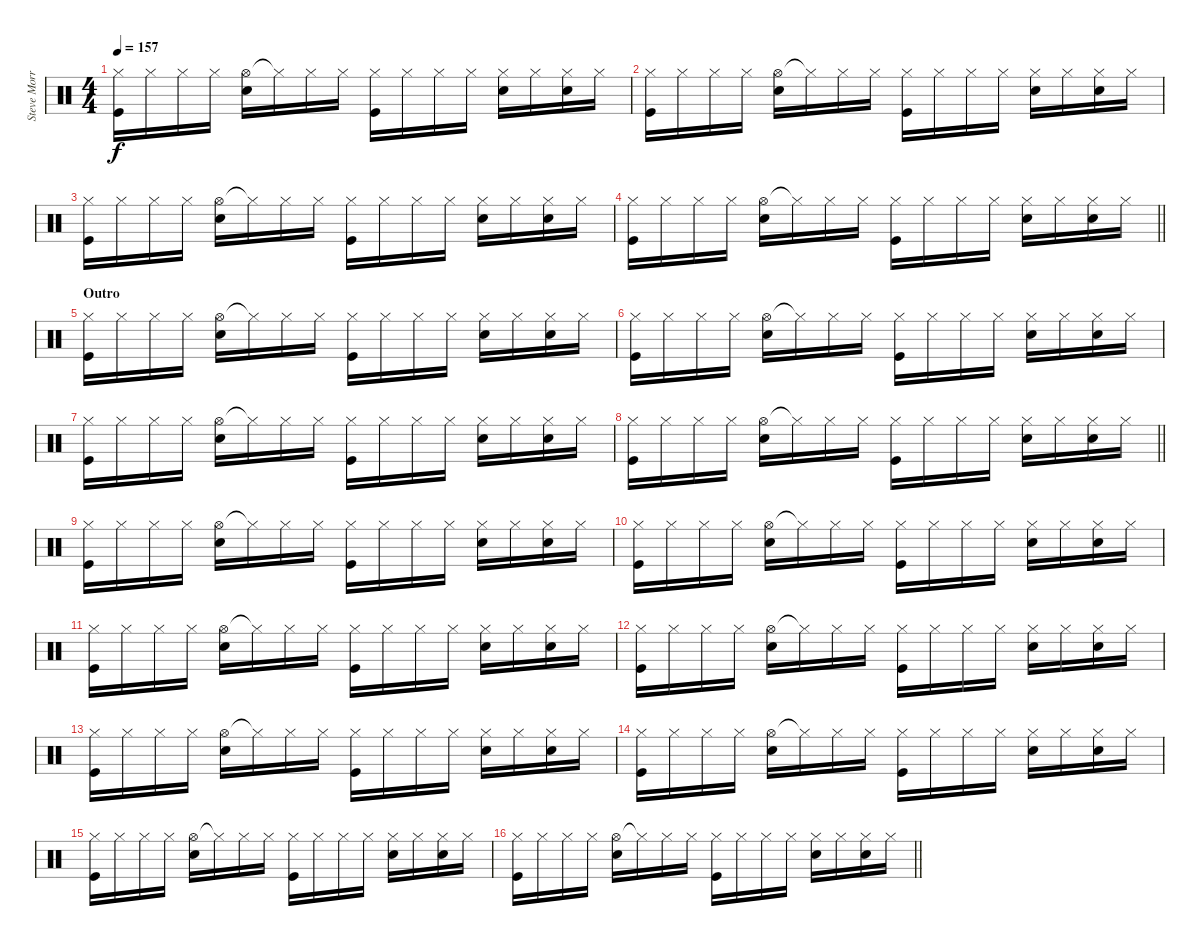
\track ("Steve Morris" "Steve Morr") {instrument percussion}
\staff {score}
\articulation defaults
\ts (4 4)
\tempo 157
\clef neutral
\ks c
("Hi-Hat (closed)" "Kick (hit)").16{dy f} "Hi-Hat (closed)".16 "Hi-Hat (closed)".16 "Hi-Hat (closed)".16 ("Hi-Hat (open)" "Electric Snare (hit)").16 "Hi-Hat (closed)"{t}.16 "Hi-Hat (closed)".16 "Hi-Hat (closed)".16 ("Hi-Hat (closed)" "Kick (hit)").16 "Hi-Hat (closed)".16 "Hi-Hat (closed)".16 "Hi-Hat (closed)".16 ("Hi-Hat (closed)" "Electric Snare (hit)").16 "Hi-Hat (closed)".16 ("Hi-Hat (closed)" "Electric Snare (hit)").16 "Hi-Hat (closed)".16 |
("Hi-Hat (closed)" "Kick (hit)").16 "Hi-Hat (closed)".16 "Hi-Hat (closed)".16 "Hi-Hat (closed)".16 ("Hi-Hat (open)" "Electric Snare (hit)").16 "Hi-Hat (closed)"{t}.16 "Hi-Hat (closed)".16 "Hi-Hat (closed)".16 ("Hi-Hat (closed)" "Kick (hit)").16 "Hi-Hat (closed)".16 "Hi-Hat (closed)".16 "Hi-Hat (closed)".16 ("Hi-Hat (closed)" "Electric Snare (hit)").16 "Hi-Hat (closed)".16 ("Hi-Hat (closed)" "Electric Snare (hit)").16 "Hi-Hat (closed)".16 |
("Hi-Hat (closed)" "Kick (hit)").16 "Hi-Hat (closed)".16 "Hi-Hat (closed)".16 "Hi-Hat (closed)".16 ("Hi-Hat (open)" "Electric Snare (hit)").16 "Hi-Hat (closed)"{t}.16 "Hi-Hat (closed)".16 "Hi-Hat (closed)".16 ("Hi-Hat (closed)" "Kick (hit)").16 "Hi-Hat (closed)".16 "Hi-Hat (closed)".16 "Hi-Hat (closed)".16 ("Hi-Hat (closed)" "Electric Snare (hit)").16 "Hi-Hat (closed)".16 ("Hi-Hat (closed)" "Electric Snare (hit)").16 "Hi-Hat (closed)".16 |
\barLineRight lightlight
("Hi-Hat (closed)" "Kick (hit)").16 "Hi-Hat (closed)".16 "Hi-Hat (closed)".16 "Hi-Hat (closed)".16 ("Hi-Hat (open)" "Electric Snare (hit)").16 "Hi-Hat (closed)"{t}.16 "Hi-Hat (closed)".16 "Hi-Hat (closed)".16 ("Hi-Hat (closed)" "Kick (hit)").16 "Hi-Hat (closed)".16 "Hi-Hat (closed)".16 "Hi-Hat (closed)".16 ("Hi-Hat (closed)" "Electric Snare (hit)").16 "Hi-Hat (closed)".16 ("Hi-Hat (closed)" "Electric Snare (hit)").16 "Hi-Hat (closed)".16 |
\section ("" "Outro")
("Hi-Hat (closed)" "Kick (hit)").16 "Hi-Hat (closed)".16 "Hi-Hat (closed)".16 "Hi-Hat (closed)".16 ("Hi-Hat (open)" "Electric Snare (hit)").16 "Hi-Hat (closed)"{t}.16 "Hi-Hat (closed)".16 "Hi-Hat (closed)".16 ("Hi-Hat (closed)" "Kick (hit)").16 "Hi-Hat (closed)".16 "Hi-Hat (closed)".16 "Hi-Hat (closed)".16 ("Hi-Hat (closed)" "Electric Snare (hit)").16 "Hi-Hat (closed)".16 ("Hi-Hat (closed)" "Electric Snare (hit)").16 "Hi-Hat (closed)".16 |
("Hi-Hat (closed)" "Kick (hit)").16 "Hi-Hat (closed)".16 "Hi-Hat (closed)".16 "Hi-Hat (closed)".16 ("Hi-Hat (open)" "Electric Snare (hit)").16 "Hi-Hat (closed)"{t}.16 "Hi-Hat (closed)".16 "Hi-Hat (closed)".16 ("Hi-Hat (closed)" "Kick (hit)").16 "Hi-Hat (closed)".16 "Hi-Hat (closed)".16 "Hi-Hat (closed)".16 ("Hi-Hat (closed)" "Electric Snare (hit)").16 "Hi-Hat (closed)".16 ("Hi-Hat (closed)" "Electric Snare (hit)").16 "Hi-Hat (closed)".16 |
("Hi-Hat (closed)" "Kick (hit)").16 "Hi-Hat (closed)".16 "Hi-Hat (closed)".16 "Hi-Hat (closed)".16 ("Hi-Hat (open)" "Electric Snare (hit)").16 "Hi-Hat (closed)"{t}.16 "Hi-Hat (closed)".16 "Hi-Hat (closed)".16 ("Hi-Hat (closed)" "Kick (hit)").16 "Hi-Hat (closed)".16 "Hi-Hat (closed)".16 "Hi-Hat (closed)".16 ("Hi-Hat (closed)" "Electric Snare (hit)").16 "Hi-Hat (closed)".16 ("Hi-Hat (closed)" "Electric Snare (hit)").16 "Hi-Hat (closed)".16 |
\barLineRight lightlight
("Hi-Hat (closed)" "Kick (hit)").16 "Hi-Hat (closed)".16 "Hi-Hat (closed)".16 "Hi-Hat (closed)".16 ("Hi-Hat (open)" "Electric Snare (hit)").16 "Hi-Hat (closed)"{t}.16 "Hi-Hat (closed)".16 "Hi-Hat (closed)".16 ("Hi-Hat (closed)" "Kick (hit)").16 "Hi-Hat (closed)".16 "Hi-Hat (closed)".16 "Hi-Hat (closed)".16 ("Hi-Hat (closed)" "Electric Snare (hit)").16 "Hi-Hat (closed)".16 ("Hi-Hat (closed)" "Electric Snare (hit)").16 "Hi-Hat (closed)".16 |
("Hi-Hat (closed)" "Kick (hit)").16 "Hi-Hat (closed)".16 "Hi-Hat (closed)".16 "Hi-Hat (closed)".16 ("Hi-Hat (open)" "Electric Snare (hit)").16 "Hi-Hat (closed)"{t}.16 "Hi-Hat (closed)".16 "Hi-Hat (closed)".16 ("Hi-Hat (closed)" "Kick (hit)").16 "Hi-Hat (closed)".16 "Hi-Hat (closed)".16 "Hi-Hat (closed)".16 ("Hi-Hat (closed)" "Electric Snare (hit)").16 "Hi-Hat (closed)".16 ("Hi-Hat (closed)" "Electric Snare (hit)").16 "Hi-Hat (closed)".16 |
("Hi-Hat (closed)" "Kick (hit)").16 "Hi-Hat (closed)".16 "Hi-Hat (closed)".16 "Hi-Hat (closed)".16 ("Hi-Hat (open)" "Electric Snare (hit)").16 "Hi-Hat (closed)"{t}.16 "Hi-Hat (closed)".16 "Hi-Hat (closed)".16 ("Hi-Hat (closed)" "Kick (hit)").16 "Hi-Hat (closed)".16 "Hi-Hat (closed)".16 "Hi-Hat (closed)".16 ("Hi-Hat (closed)" "Electric Snare (hit)").16 "Hi-Hat (closed)".16 ("Hi-Hat (closed)" "Electric Snare (hit)").16 "Hi-Hat (closed)".16 |
("Hi-Hat (closed)" "Kick (hit)").16 "Hi-Hat (closed)".16 "Hi-Hat (closed)".16 "Hi-Hat (closed)".16 ("Hi-Hat (open)" "Electric Snare (hit)").16 "Hi-Hat (closed)"{t}.16 "Hi-Hat (closed)".16 "Hi-Hat (closed)".16 ("Hi-Hat (closed)" "Kick (hit)").16 "Hi-Hat (closed)".16 "Hi-Hat (closed)".16 "Hi-Hat (closed)".16 ("Hi-Hat (closed)" "Electric Snare (hit)").16 "Hi-Hat (closed)".16 ("Hi-Hat (closed)" "Electric Snare (hit)").16 "Hi-Hat (closed)".16 |
("Hi-Hat (closed)" "Kick (hit)").16 "Hi-Hat (closed)".16 "Hi-Hat (closed)".16 "Hi-Hat (closed)".16 ("Hi-Hat (open)" "Electric Snare (hit)").16 "Hi-Hat (closed)"{t}.16 "Hi-Hat (closed)".16 "Hi-Hat (closed)".16 ("Hi-Hat (closed)" "Kick (hit)").16 "Hi-Hat (closed)".16 "Hi-Hat (closed)".16 "Hi-Hat (closed)".16 ("Hi-Hat (closed)" "Electric Snare (hit)").16 "Hi-Hat (closed)".16 ("Hi-Hat (closed)" "Electric Snare (hit)").16 "Hi-Hat (closed)".16 |
("Hi-Hat (closed)" "Kick (hit)").16 "Hi-Hat (closed)".16 "Hi-Hat (closed)".16 "Hi-Hat (closed)".16 ("Hi-Hat (open)" "Electric Snare (hit)").16 "Hi-Hat (closed)"{t}.16 "Hi-Hat (closed)".16 "Hi-Hat (closed)".16 ("Hi-Hat (closed)" "Kick (hit)").16 "Hi-Hat (closed)".16 "Hi-Hat (closed)".16 "Hi-Hat (closed)".16 ("Hi-Hat (closed)" "Electric Snare (hit)").16 "Hi-Hat (closed)".16 ("Hi-Hat (closed)" "Electric Snare (hit)").16 "Hi-Hat (closed)".16 |
("Hi-Hat (closed)" "Kick (hit)").16 "Hi-Hat (closed)".16 "Hi-Hat (closed)".16 "Hi-Hat (closed)".16 ("Hi-Hat (open)" "Electric Snare (hit)").16 "Hi-Hat (closed)"{t}.16 "Hi-Hat (closed)".16 "Hi-Hat (closed)".16 ("Hi-Hat (closed)" "Kick (hit)").16 "Hi-Hat (closed)".16 "Hi-Hat (closed)".16 "Hi-Hat (closed)".16 ("Hi-Hat (closed)" "Electric Snare (hit)").16 "Hi-Hat (closed)".16 ("Hi-Hat (closed)" "Electric Snare (hit)").16 "Hi-Hat (closed)".16 |
("Hi-Hat (closed)" "Kick (hit)").16 "Hi-Hat (closed)".16 "Hi-Hat (closed)".16 "Hi-Hat (closed)".16 ("Hi-Hat (open)" "Electric Snare (hit)").16 "Hi-Hat (closed)"{t}.16 "Hi-Hat (closed)".16 "Hi-Hat (closed)".16 ("Hi-Hat (closed)" "Kick (hit)").16 "Hi-Hat (closed)".16 "Hi-Hat (closed)".16 "Hi-Hat (closed)".16 ("Hi-Hat (closed)" "Electric Snare (hit)").16 "Hi-Hat (closed)".16 ("Hi-Hat (closed)" "Electric Snare (hit)").16 "Hi-Hat (closed)".16 |
\barLineRight lightlight
("Hi-Hat (closed)" "Kick (hit)").16 "Hi-Hat (closed)".16 "Hi-Hat (closed)".16 "Hi-Hat (closed)".16 ("Hi-Hat (open)" "Electric Snare (hit)").16 "Hi-Hat (closed)"{t}.16 "Hi-Hat (closed)".16 "Hi-Hat (closed)".16 ("Hi-Hat (closed)" "Kick (hit)").16 "Hi-Hat (closed)".16 "Hi-Hat (closed)".16 "Hi-Hat (closed)".16 ("Hi-Hat (closed)" "Electric Snare (hit)").16 "Hi-Hat (closed)".16 ("Hi-Hat (closed)" "Electric Snare (hit)").16 "Hi-Hat (closed)".16
